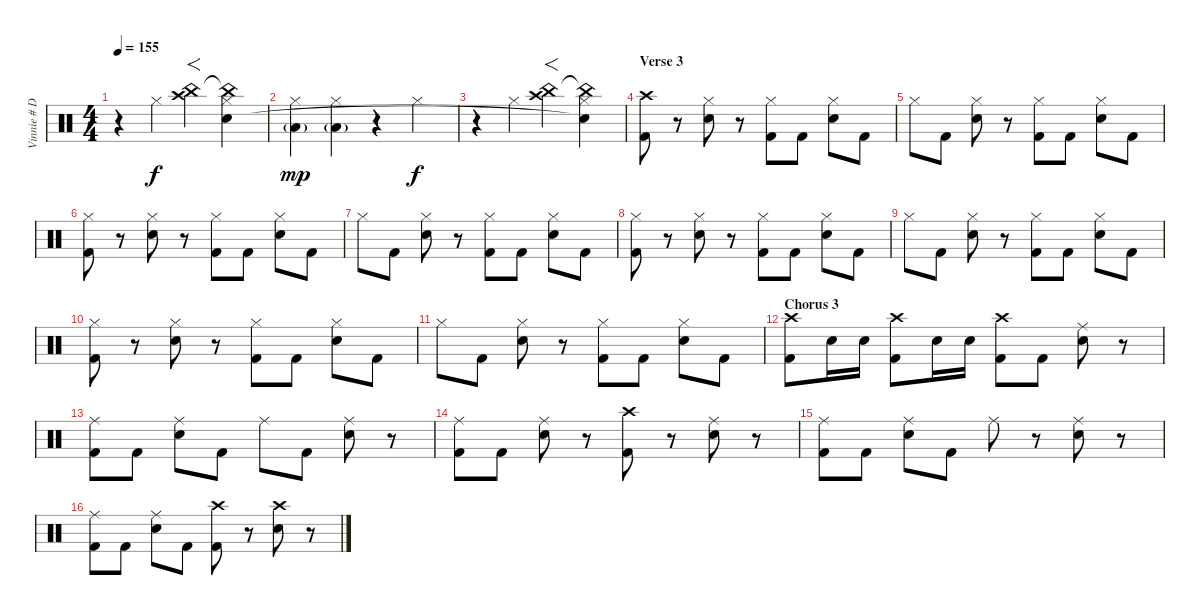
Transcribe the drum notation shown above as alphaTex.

\track ("Vinnie # Drums" "Vinnie # D") {instrument percussion}
\staff {score}
\articulation defaults
\ts (4 4)
\tempo 155
\clef neutral
\ks c
r.4{dy f} "Hi-Hat (closed)".4 ("Crash high (hit)" "China (hit)").4{f} ("Hi-Hat (closed)" "China (hit)"{t} "Snare (hit)"{t}).4 |
("Hi-Hat (closed)" "Low Floor Tom (hit)"{g}).4{dy mp} ("Hi-Hat (closed)" "Low Floor Tom (hit)"{g}).4 r.4 "Hi-Hat (closed)".4{dy f} |
r.4 "Hi-Hat (closed)".4 ("Crash high (hit)" "China (hit)").4{f} ("Hi-Hat (closed)" "China (hit)"{t} "Snare (hit)"{t}).4 |
\section ("" "Verse 3")
("Crash high (hit)" "Kick (hit) 2").8 r.8 ("Hi-Hat (closed)" "Electric Snare (hit)").8 r.8 ("Hi-Hat (closed)" "Kick (hit) 2").8 "Kick (hit) 2".8 ("Hi-Hat (closed)" "Electric Snare (hit)").8 "Kick (hit) 2".8 |
"Hi-Hat (closed)".8 "Kick (hit) 2".8 ("Hi-Hat (closed)" "Electric Snare (hit)").8 r.8 ("Hi-Hat (closed)" "Kick (hit) 2").8 "Kick (hit) 2".8 ("Hi-Hat (closed)" "Electric Snare (hit)").8 "Kick (hit) 2".8 |
("Hi-Hat (closed)" "Kick (hit) 2").8 r.8 ("Hi-Hat (closed)" "Electric Snare (hit)").8 r.8 ("Hi-Hat (closed)" "Kick (hit) 2").8 "Kick (hit) 2".8 ("Hi-Hat (closed)" "Electric Snare (hit)").8 "Kick (hit) 2".8 |
"Hi-Hat (closed)".8 "Kick (hit) 2".8 ("Hi-Hat (closed)" "Electric Snare (hit)").8 r.8 ("Hi-Hat (closed)" "Kick (hit) 2").8 "Kick (hit) 2".8 ("Hi-Hat (closed)" "Electric Snare (hit)").8 "Kick (hit) 2".8 |
("Hi-Hat (closed)" "Kick (hit) 2").8 r.8 ("Hi-Hat (closed)" "Electric Snare (hit)").8 r.8 ("Hi-Hat (closed)" "Kick (hit) 2").8 "Kick (hit) 2".8 ("Hi-Hat (closed)" "Electric Snare (hit)").8 "Kick (hit) 2".8 |
"Hi-Hat (closed)".8 "Kick (hit) 2".8 ("Hi-Hat (closed)" "Electric Snare (hit)").8 r.8 ("Hi-Hat (closed)" "Kick (hit) 2").8 "Kick (hit) 2".8 ("Hi-Hat (closed)" "Electric Snare (hit)").8 "Kick (hit) 2".8 |
("Hi-Hat (closed)" "Kick (hit) 2").8 r.8 ("Hi-Hat (closed)" "Electric Snare (hit)").8 r.8 ("Hi-Hat (closed)" "Kick (hit) 2").8 "Kick (hit) 2".8 ("Hi-Hat (closed)" "Electric Snare (hit)").8 "Kick (hit) 2".8 |
"Hi-Hat (closed)".8 "Kick (hit) 2".8 ("Hi-Hat (closed)" "Electric Snare (hit)").8 r.8 ("Hi-Hat (closed)" "Kick (hit) 2").8 "Kick (hit) 2".8 ("Hi-Hat (closed)" "Electric Snare (hit)").8 "Kick (hit) 2".8 |
\section ("" "Chorus 3")
("Crash high (hit)" "Kick (hit) 2").8 "Electric Snare (hit)".16 "Electric Snare (hit)".16 ("Crash high (hit)" "Kick (hit) 2").8 "Electric Snare (hit)".16 "Electric Snare (hit)".16 ("Crash high (hit)" "Kick (hit) 2").8 "Kick (hit) 2".8 ("Ride (middle)" "Electric Snare (hit)").8 r.8 |
("Ride (middle)" "Kick (hit) 2").8 "Kick (hit) 2".8 ("Ride (middle)" "Electric Snare (hit)").8 "Kick (hit) 2".8 "Ride (middle)".8 "Kick (hit) 2".8 ("Ride (middle)" "Electric Snare (hit)").8 r.8 |
("Ride (middle)" "Kick (hit) 2").8 "Kick (hit) 2".8 ("Ride (middle)" "Electric Snare (hit)").8 r.8 ("Crash high (hit)" "Kick (hit) 2").8 r.8 ("Ride (middle)" "Electric Snare (hit)").8 r.8 |
("Ride (middle)" "Kick (hit) 2").8 "Kick (hit) 2".8 ("Ride (middle)" "Electric Snare (hit)").8 "Kick (hit) 2".8 "Ride (middle)".8 r.8 ("Ride (middle)" "Electric Snare (hit)").8 r.8 |
("Ride (middle)" "Kick (hit) 2").8 "Kick (hit) 2".8 ("Ride (middle)" "Electric Snare (hit)").8 "Kick (hit) 2".8 ("Crash high (hit)" "Kick (hit) 2").8 r.8 ("Crash high (hit)" "Electric Snare (hit)").8 r.8
